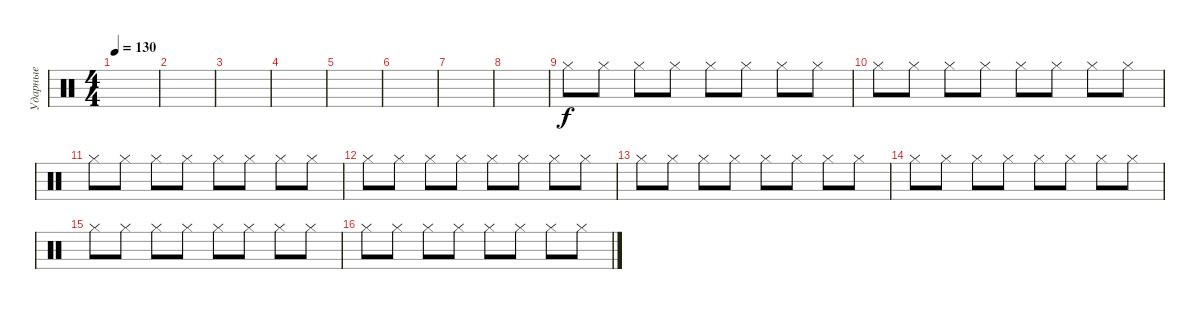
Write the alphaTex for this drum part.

\track ("Ударные" "Ударные") {instrument percussion}
\staff {score}
\articulation defaults
\ts (4 4)
\tempo 130
\clef neutral
\ks c
|
|
|
|
|
|
|
|
"Hi-Hat (closed)".8 "Hi-Hat (closed)".8 "Hi-Hat (closed)".8 "Hi-Hat (closed)".8 "Hi-Hat (closed)".8 "Hi-Hat (closed)".8 "Hi-Hat (closed)".8 "Hi-Hat (closed)".8 |
"Hi-Hat (closed)".8 "Hi-Hat (closed)".8 "Hi-Hat (closed)".8 "Hi-Hat (closed)".8 "Hi-Hat (closed)".8 "Hi-Hat (closed)".8 "Hi-Hat (closed)".8 "Hi-Hat (closed)".8 |
"Hi-Hat (closed)".8 "Hi-Hat (closed)".8 "Hi-Hat (closed)".8 "Hi-Hat (closed)".8 "Hi-Hat (closed)".8 "Hi-Hat (closed)".8 "Hi-Hat (closed)".8 "Hi-Hat (closed)".8 |
"Hi-Hat (closed)".8 "Hi-Hat (closed)".8 "Hi-Hat (closed)".8 "Hi-Hat (closed)".8 "Hi-Hat (closed)".8 "Hi-Hat (closed)".8 "Hi-Hat (closed)".8 "Hi-Hat (closed)".8 |
"Hi-Hat (closed)".8 "Hi-Hat (closed)".8 "Hi-Hat (closed)".8 "Hi-Hat (closed)".8 "Hi-Hat (closed)".8 "Hi-Hat (closed)".8 "Hi-Hat (closed)".8 "Hi-Hat (closed)".8 |
"Hi-Hat (closed)".8 "Hi-Hat (closed)".8 "Hi-Hat (closed)".8 "Hi-Hat (closed)".8 "Hi-Hat (closed)".8 "Hi-Hat (closed)".8 "Hi-Hat (closed)".8 "Hi-Hat (closed)".8 |
"Hi-Hat (closed)".8 "Hi-Hat (closed)".8 "Hi-Hat (closed)".8 "Hi-Hat (closed)".8 "Hi-Hat (closed)".8 "Hi-Hat (closed)".8 "Hi-Hat (closed)".8 "Hi-Hat (closed)".8 |
"Hi-Hat (closed)".8 "Hi-Hat (closed)".8 "Hi-Hat (closed)".8 "Hi-Hat (closed)".8 "Hi-Hat (closed)".8 "Hi-Hat (closed)".8 "Hi-Hat (closed)".8 "Hi-Hat (closed)".8
